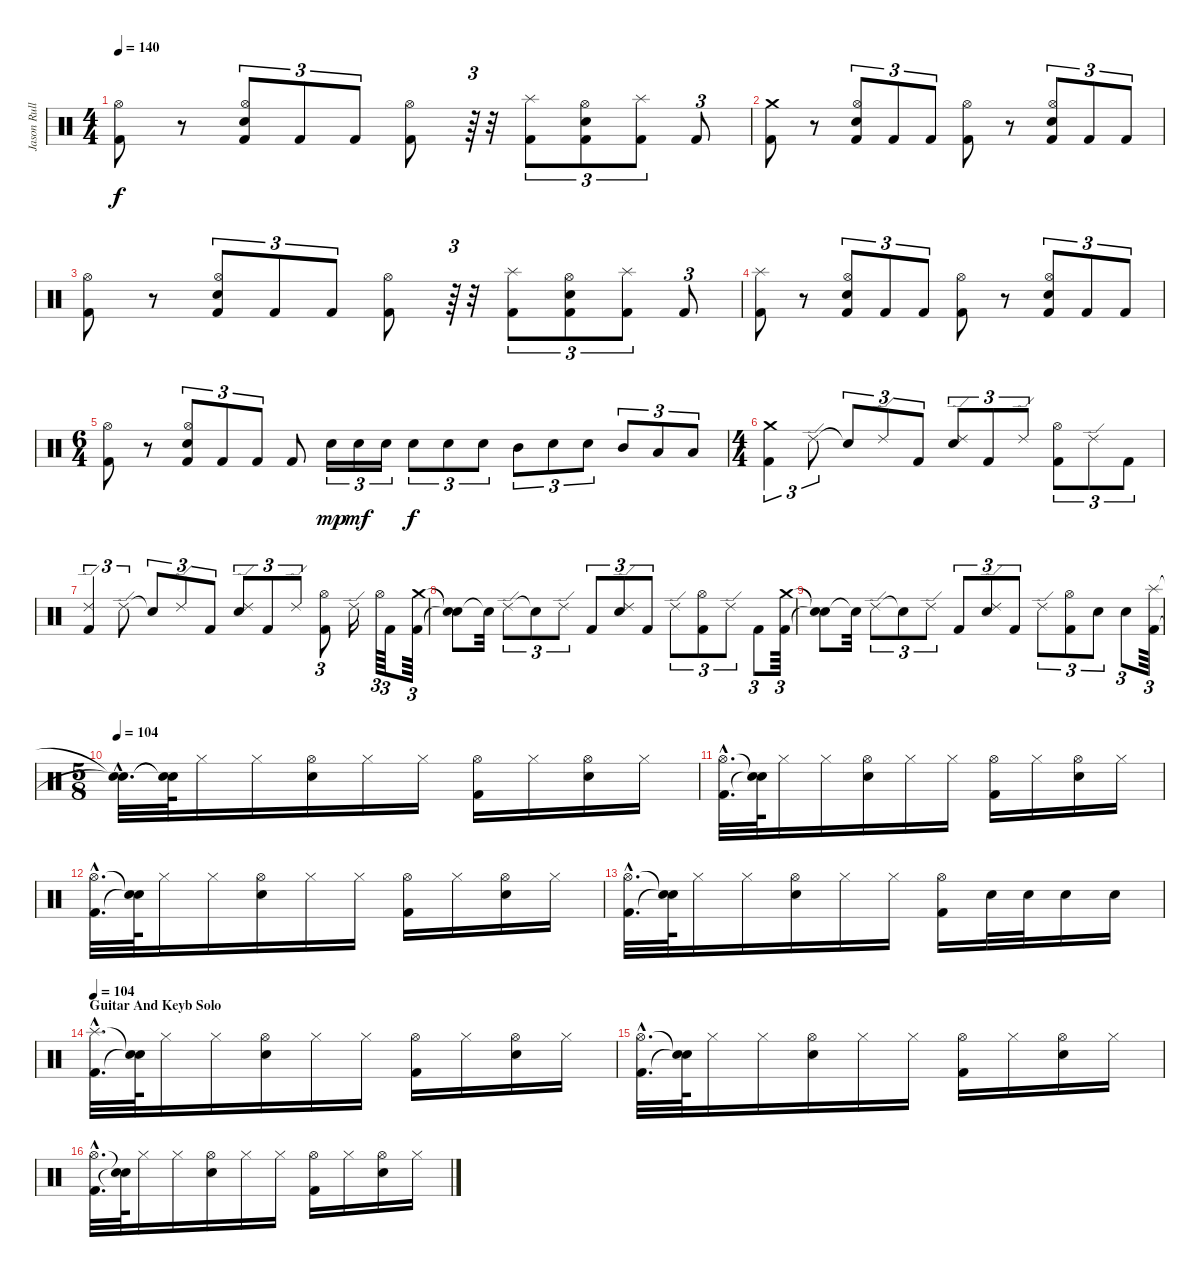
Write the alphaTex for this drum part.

\track ("Jason Rullo" "Jason Rull") {instrument percussion}
\staff {score}
\articulation defaults
\ts (4 4)
\tempo 140
\clef neutral
\ks c
("Kick (hit) 2" "Hi-Hat (open)").8{dy f} r.8 ("Kick (hit) 2" "Electric Snare (hit)" "Hi-Hat (open)").8{tu (3 2)} "Kick (hit) 2".8{tu (3 2)} "Kick (hit) 2".8{tu (3 2)} ("Kick (hit) 2" "Hi-Hat (open)").8 r.64{tu (3 2)} r.32 ("Kick (hit) 2" "Splash (hit)").8{tu (3 2)} ("Electric Snare (hit)" "Kick (hit) 2" "Hi-Hat (open)").8{tu (3 2)} ("Splash (hit)" "Kick (hit) 2").8{tu (3 2)} "Kick (hit) 2".8{tu (3 2)} |
("Crash medium (hit)" "Kick (hit) 2").8 r.8 ("Hi-Hat (open)" "Electric Snare (hit)" "Kick (hit) 2").8{tu (3 2)} "Kick (hit) 2".8{tu (3 2)} "Kick (hit) 2".8{tu (3 2)} ("Hi-Hat (open)" "Kick (hit) 2").8 r.8 ("Hi-Hat (open)" "Kick (hit) 2" "Electric Snare (hit)").8{tu (3 2)} "Kick (hit) 2".8{tu (3 2)} "Kick (hit) 2".8{tu (3 2)} |
("Kick (hit) 2" "Hi-Hat (open)").8 r.8 ("Kick (hit) 2" "Electric Snare (hit)" "Hi-Hat (open)").8{tu (3 2)} "Kick (hit) 2".8{tu (3 2)} "Kick (hit) 2".8{tu (3 2)} ("Kick (hit) 2" "Hi-Hat (open)").8 r.64{tu (3 2)} r.32 ("Kick (hit) 2" "Splash (hit)").8{tu (3 2)} ("Electric Snare (hit)" "Kick (hit) 2" "Hi-Hat (open)").8{tu (3 2)} ("Splash (hit)" "Kick (hit) 2").8{tu (3 2)} "Kick (hit) 2".8{tu (3 2)} |
("Splash (hit)" "Kick (hit) 2").8 r.8 ("Hi-Hat (open)" "Electric Snare (hit)" "Kick (hit) 2").8{tu (3 2)} "Kick (hit) 2".8{tu (3 2)} "Kick (hit) 2".8{tu (3 2)} ("Hi-Hat (open)" "Kick (hit) 2").8 r.8 ("Hi-Hat (open)" "Kick (hit) 2" "Electric Snare (hit)").8{tu (3 2)} "Kick (hit) 2".8{tu (3 2)} "Kick (hit) 2".8{tu (3 2)} |
\ts (6 4)
("Hi-Hat (open)" "Kick (hit) 2").8 r.8 ("Kick (hit) 2" "Electric Snare (hit)" "Hi-Hat (open)").8{tu (3 2)} "Kick (hit) 2".8{tu (3 2)} "Kick (hit) 2".8{tu (3 2)} "Kick (hit) 2".8 "Electric Snare (hit)".16{tu (3 2) dy mp} "Electric Snare (hit)".16{tu (3 2) dy mf} "Electric Snare (hit)".16{tu (3 2)} "Electric Snare (hit)".8{tu (3 2) dy f} "Electric Snare (hit)".8{tu (3 2)} "Electric Snare (hit)".8{tu (3 2)} "Mid Tom (hit)".8{tu (3 2)} "Electric Snare (hit)".8{tu (3 2)} "Electric Snare (hit)".8{tu (3 2)} "Mid Tom (hit)".8{tu (3 2)} "Low Tom (hit)".8{tu (3 2)} "Low Floor Tom (hit)".8{tu (3 2)} |
\ts (4 4)
("Kick (hit) 2" "Crash medium (hit)").4{tu (3 2)} "Ride (edge) 2".8{tu (3 2)} "Snare (hit)"{t}.8{tu (3 2)} "Ride (edge) 2".8{tu (3 2)} "Kick (hit) 2".8{tu (3 2)} ("Electric Snare (hit)" "Ride (edge) 2").8{tu (3 2)} "Kick (hit) 2".8{tu (3 2)} "Ride (edge) 2".8{tu (3 2)} ("Hi-Hat (open)" "Kick (hit) 2").8{tu (3 2)} "Ride (edge) 2".8{tu (3 2)} "Kick (hit) 2".8{tu (3 2)} |
("Ride (edge) 2" "Kick (hit) 2").4{tu (3 2)} "Ride (edge) 2".8{tu (3 2)} "Snare (hit)"{t}.8{tu (3 2)} "Ride (edge) 2".8{tu (3 2)} "Kick (hit) 2".8{tu (3 2)} ("Electric Snare (hit)" "Ride (edge) 2").8{tu (3 2)} "Kick (hit) 2".8{tu (3 2)} "Ride (edge) 2".8{tu (3 2)} ("Hi-Hat (open)" "Kick (hit) 2").8{tu (3 2)} "Ride (edge) 2".16 "Hi-Hat (open)".64{tu (3 2)} "Kick (hit) 2".8{tu (3 2)} ("Kick (hit) 2" "Crash medium (hit)").64{tu (3 2)} |
("Snare (hit)"{t} "Snare (hit)"{t}).8 "Snare (hit)"{t}.32 "Ride (edge) 2".8{tu (3 2)} "Snare (hit)"{t}.8{tu (3 2)} "Ride (edge) 2".8{tu (3 2)} "Kick (hit) 2".8{tu (3 2)} ("Electric Snare (hit)" "Ride (edge) 2").8{tu (3 2)} "Kick (hit) 2".8{tu (3 2)} "Ride (edge) 2".8{tu (3 2)} ("Hi-Hat (open)" "Kick (hit) 2").8{tu (3 2)} "Ride (edge) 2".8{tu (3 2)} "Kick (hit) 2".8{tu (3 2)} ("Kick (hit) 2" "Crash medium (hit)").64{tu (3 2)} |
("Snare (hit)"{t} "Snare (hit)"{t}).8 "Snare (hit)"{t}.32 "Ride (edge) 2".8{tu (3 2)} "Snare (hit)"{t}.8{tu (3 2)} "Ride (edge) 2".8{tu (3 2)} "Kick (hit) 2".8{tu (3 2)} ("Electric Snare (hit)" "Ride (edge) 2").8{tu (3 2)} "Kick (hit) 2".8{tu (3 2)} "Ride (edge) 2".8{tu (3 2)} ("Hi-Hat (open)" "Kick (hit) 2").8{tu (3 2)} "Electric Snare (hit)".8{tu (3 2)} "Electric Snare (hit)".8{tu (3 2)} ("Splash (hit)" "Kick (hit) 2").64{tu (3 2)} |
\ts (5 8)
\tempo 104
("Snare (hit)"{hac t} "Snare (hit)"{hac t}).32{d} ("Snare (hit)"{t} "Snare (hit)"{t}).64 "Hi-Hat (closed)".16 "Hi-Hat (closed)".16 ("Hi-Hat (open)" "Electric Snare (hit)").16 "Hi-Hat (closed)".16 "Hi-Hat (closed)".16 ("Hi-Hat (open)" "Kick (hit) 2").16 "Hi-Hat (closed)".16 ("Hi-Hat (open)" "Electric Snare (hit)").16 "Hi-Hat (closed)".16 |
("Hi-Hat (open)"{hac} "Kick (hit) 2"{hac}).32{d} ("Snare (hit)"{t} "Snare (hit)"{t}).64 "Hi-Hat (closed)".16 "Hi-Hat (closed)".16 ("Hi-Hat (open)" "Electric Snare (hit)").16 "Hi-Hat (closed)".16 "Hi-Hat (closed)".16 ("Hi-Hat (open)" "Kick (hit) 2").16 "Hi-Hat (closed)".16 ("Hi-Hat (open)" "Electric Snare (hit)").16 "Hi-Hat (closed)".16 |
("Hi-Hat (open)"{hac} "Kick (hit) 2"{hac}).32{d} ("Snare (hit)"{t} "Snare (hit)"{t}).64 "Hi-Hat (closed)".16 "Hi-Hat (closed)".16 ("Hi-Hat (open)" "Electric Snare (hit)").16 "Hi-Hat (closed)".16 "Hi-Hat (closed)".16 ("Hi-Hat (open)" "Kick (hit) 2").16 "Hi-Hat (closed)".16 ("Hi-Hat (open)" "Electric Snare (hit)").16 "Hi-Hat (closed)".16 |
("Hi-Hat (open)"{hac} "Kick (hit) 2"{hac}).32{d} ("Snare (hit)"{t} "Snare (hit)"{t}).64 "Hi-Hat (closed)".16 "Hi-Hat (closed)".16 ("Hi-Hat (open)" "Electric Snare (hit)").16 "Hi-Hat (closed)".16 "Hi-Hat (closed)".16 ("Hi-Hat (open)" "Kick (hit) 2").16 "Electric Snare (hit)".32 "Electric Snare (hit)".32 "Electric Snare (hit)".16 "Electric Snare (hit)".16 |
\section ("" "Guitar And Keyb Solo")
\tempo 104
("Splash (hit)"{hac} "Kick (hit) 2"{hac}).32{d} ("Snare (hit)"{t} "Snare (hit)"{t}).64 "Hi-Hat (closed)".16 "Hi-Hat (closed)".16 ("Hi-Hat (open)" "Electric Snare (hit)").16 "Hi-Hat (closed)".16 "Hi-Hat (closed)".16 ("Hi-Hat (open)" "Kick (hit) 2").16 "Hi-Hat (closed)".16 ("Hi-Hat (open)" "Electric Snare (hit)").16 "Hi-Hat (closed)".16 |
("Hi-Hat (open)"{hac} "Kick (hit) 2"{hac}).32{d} ("Snare (hit)"{t} "Snare (hit)"{t}).64 "Hi-Hat (closed)".16 "Hi-Hat (closed)".16 ("Hi-Hat (open)" "Electric Snare (hit)").16 "Hi-Hat (closed)".16 "Hi-Hat (closed)".16 ("Hi-Hat (open)" "Kick (hit) 2").16 "Hi-Hat (closed)".16 ("Hi-Hat (open)" "Electric Snare (hit)").16 "Hi-Hat (closed)".16 |
("Hi-Hat (open)"{hac} "Kick (hit) 2"{hac}).32{d} ("Snare (hit)"{t} "Snare (hit)"{t}).64 "Hi-Hat (closed)".16 "Hi-Hat (closed)".16 ("Hi-Hat (open)" "Electric Snare (hit)").16 "Hi-Hat (closed)".16 "Hi-Hat (closed)".16 ("Hi-Hat (open)" "Kick (hit) 2").16 "Hi-Hat (closed)".16 ("Hi-Hat (open)" "Electric Snare (hit)").16 "Hi-Hat (closed)".16
